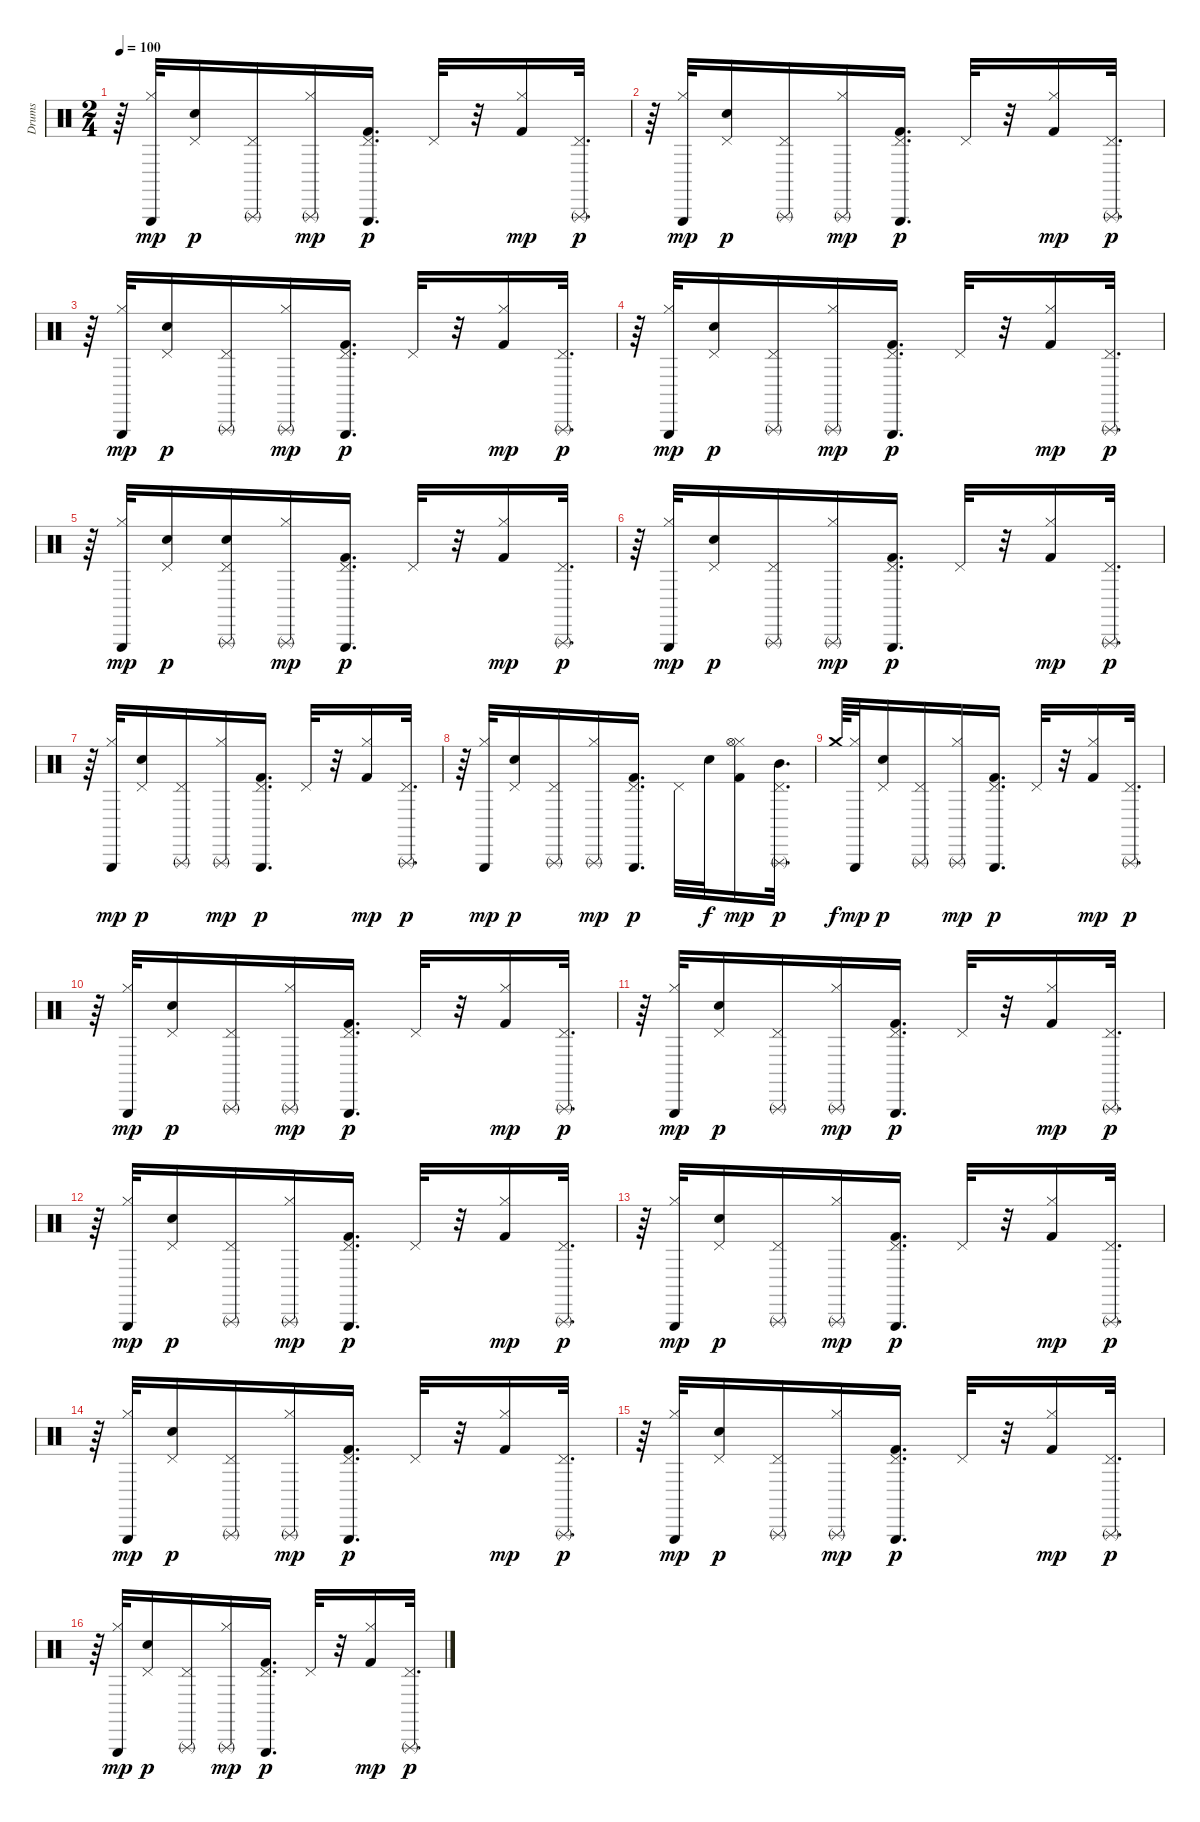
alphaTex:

\track ("Drums" "Drums") {instrument percussion}
\staff {score}
\articulation defaults
\ts (2 4)
\tempo 100
\clef neutral
\ks c
r.64{dy p} ("Triangle (hit)" "Hi-Hat (closed)").32{dy mp} ("Pedal Hi-Hat (hit)" "Electric Snare (hit)").16{dy p} ("Triangle (rnute)" "Pedal Hi-Hat (hit)").16 ("Triangle (rnute)" "Hi-Hat (closed)").16{dy mp} ("Triangle (hit)" "Kick (hit) 2" "Pedal Hi-Hat (hit)").16{d dy p} "Pedal Hi-Hat (hit)".32 r.32 ("Kick (hit) 2" "Hi-Hat (closed)").16{dy mp} ("Triangle (rnute)" "Pedal Hi-Hat (hit)").32{d dy p} |
r.64 ("Triangle (hit)" "Hi-Hat (closed)").32{dy mp} ("Pedal Hi-Hat (hit)" "Electric Snare (hit)").16{dy p} ("Triangle (rnute)" "Pedal Hi-Hat (hit)").16 ("Triangle (rnute)" "Hi-Hat (closed)").16{dy mp} ("Triangle (hit)" "Kick (hit) 2" "Pedal Hi-Hat (hit)").16{d dy p} "Pedal Hi-Hat (hit)".32 r.32 ("Kick (hit) 2" "Hi-Hat (closed)").16{dy mp} ("Triangle (rnute)" "Pedal Hi-Hat (hit)").32{d dy p} |
r.64 ("Triangle (hit)" "Hi-Hat (closed)").32{dy mp} ("Pedal Hi-Hat (hit)" "Electric Snare (hit)").16{dy p} ("Triangle (rnute)" "Pedal Hi-Hat (hit)").16 ("Triangle (rnute)" "Hi-Hat (closed)").16{dy mp} ("Triangle (hit)" "Kick (hit) 2" "Pedal Hi-Hat (hit)").16{d dy p} "Pedal Hi-Hat (hit)".32 r.32 ("Kick (hit) 2" "Hi-Hat (closed)").16{dy mp} ("Triangle (rnute)" "Pedal Hi-Hat (hit)").32{d dy p} |
r.64 ("Triangle (hit)" "Hi-Hat (closed)").32{dy mp} ("Pedal Hi-Hat (hit)" "Electric Snare (hit)").16{dy p} ("Triangle (rnute)" "Pedal Hi-Hat (hit)").16 ("Triangle (rnute)" "Hi-Hat (closed)").16{dy mp} ("Triangle (hit)" "Kick (hit) 2" "Pedal Hi-Hat (hit)").16{d dy p} "Pedal Hi-Hat (hit)".32 r.32 ("Kick (hit) 2" "Hi-Hat (closed)").16{dy mp} ("Triangle (rnute)" "Pedal Hi-Hat (hit)").32{d dy p} |
r.64 ("Triangle (hit)" "Hi-Hat (closed)").32{dy mp} ("Pedal Hi-Hat (hit)" "Electric Snare (hit)").16{dy p} ("Triangle (rnute)" "Pedal Hi-Hat (hit)" "Electric Snare (hit)").16 ("Triangle (rnute)" "Hi-Hat (closed)").16{dy mp} ("Triangle (hit)" "Kick (hit) 2" "Pedal Hi-Hat (hit)").16{d dy p} "Pedal Hi-Hat (hit)".32 r.32 ("Kick (hit) 2" "Hi-Hat (closed)").16{dy mp} ("Triangle (rnute)" "Pedal Hi-Hat (hit)").32{d dy p} |
r.64 ("Triangle (hit)" "Hi-Hat (closed)").32{dy mp} ("Pedal Hi-Hat (hit)" "Electric Snare (hit)").16{dy p} ("Triangle (rnute)" "Pedal Hi-Hat (hit)").16 ("Triangle (rnute)" "Hi-Hat (closed)").16{dy mp} ("Triangle (hit)" "Kick (hit) 2" "Pedal Hi-Hat (hit)").16{d dy p} "Pedal Hi-Hat (hit)".32 r.32 ("Kick (hit) 2" "Hi-Hat (closed)").16{dy mp} ("Triangle (rnute)" "Pedal Hi-Hat (hit)").32{d dy p} |
r.64 ("Triangle (hit)" "Hi-Hat (closed)").32{dy mp} ("Pedal Hi-Hat (hit)" "Electric Snare (hit)").16{dy p} ("Triangle (rnute)" "Pedal Hi-Hat (hit)").16 ("Triangle (rnute)" "Hi-Hat (closed)").16{dy mp} ("Triangle (hit)" "Kick (hit) 2" "Pedal Hi-Hat (hit)").16{d dy p} "Pedal Hi-Hat (hit)".32 r.32 ("Kick (hit) 2" "Hi-Hat (closed)").16{dy mp} ("Triangle (rnute)" "Pedal Hi-Hat (hit)").32{d dy p} |
r.64 ("Triangle (hit)" "Hi-Hat (closed)").32{dy mp} ("Pedal Hi-Hat (hit)" "Electric Snare (hit)").16{dy p} ("Triangle (rnute)" "Pedal Hi-Hat (hit)").16 ("Triangle (rnute)" "Hi-Hat (closed)").16{dy mp} ("Triangle (hit)" "Kick (hit) 2" "Pedal Hi-Hat (hit)").16{d dy p} "Pedal Hi-Hat (hit)".32 "Electric Snare (hit)".32{dy f} ("Kick (hit) 2" "Hi-Hat (closed)" "Hi-Hat (open)").16{dy mp} ("Triangle (rnute)" "Pedal Hi-Hat (hit)" "Mid Tom (hit)").32{d dy p} |
"Crash medium (hit)".64{dy f} ("Triangle (hit)" "Hi-Hat (closed)").32{dy mp} ("Pedal Hi-Hat (hit)" "Electric Snare (hit)").16{dy p} ("Triangle (rnute)" "Pedal Hi-Hat (hit)").16 ("Triangle (rnute)" "Hi-Hat (closed)").16{dy mp} ("Triangle (hit)" "Kick (hit) 2" "Pedal Hi-Hat (hit)").16{d dy p} "Pedal Hi-Hat (hit)".32 r.32 ("Kick (hit) 2" "Hi-Hat (closed)").16{dy mp} ("Triangle (rnute)" "Pedal Hi-Hat (hit)").32{d dy p} |
r.64 ("Triangle (hit)" "Hi-Hat (closed)").32{dy mp} ("Pedal Hi-Hat (hit)" "Electric Snare (hit)").16{dy p} ("Triangle (rnute)" "Pedal Hi-Hat (hit)").16 ("Triangle (rnute)" "Hi-Hat (closed)").16{dy mp} ("Triangle (hit)" "Kick (hit) 2" "Pedal Hi-Hat (hit)").16{d dy p} "Pedal Hi-Hat (hit)".32 r.32 ("Kick (hit) 2" "Hi-Hat (closed)").16{dy mp} ("Triangle (rnute)" "Pedal Hi-Hat (hit)").32{d dy p} |
r.64 ("Triangle (hit)" "Hi-Hat (closed)").32{dy mp} ("Pedal Hi-Hat (hit)" "Electric Snare (hit)").16{dy p} ("Triangle (rnute)" "Pedal Hi-Hat (hit)").16 ("Triangle (rnute)" "Hi-Hat (closed)").16{dy mp} ("Triangle (hit)" "Kick (hit) 2" "Pedal Hi-Hat (hit)").16{d dy p} "Pedal Hi-Hat (hit)".32 r.32 ("Kick (hit) 2" "Hi-Hat (closed)").16{dy mp} ("Triangle (rnute)" "Pedal Hi-Hat (hit)").32{d dy p} |
r.64 ("Triangle (hit)" "Hi-Hat (closed)").32{dy mp} ("Pedal Hi-Hat (hit)" "Electric Snare (hit)").16{dy p} ("Triangle (rnute)" "Pedal Hi-Hat (hit)").16 ("Triangle (rnute)" "Hi-Hat (closed)").16{dy mp} ("Triangle (hit)" "Kick (hit) 2" "Pedal Hi-Hat (hit)").16{d dy p} "Pedal Hi-Hat (hit)".32 r.32 ("Kick (hit) 2" "Hi-Hat (closed)").16{dy mp} ("Triangle (rnute)" "Pedal Hi-Hat (hit)").32{d dy p} |
r.64 ("Triangle (hit)" "Hi-Hat (closed)").32{dy mp} ("Pedal Hi-Hat (hit)" "Electric Snare (hit)").16{dy p} ("Triangle (rnute)" "Pedal Hi-Hat (hit)").16 ("Triangle (rnute)" "Hi-Hat (closed)").16{dy mp} ("Triangle (hit)" "Kick (hit) 2" "Pedal Hi-Hat (hit)").16{d dy p} "Pedal Hi-Hat (hit)".32 r.32 ("Kick (hit) 2" "Hi-Hat (closed)").16{dy mp} ("Triangle (rnute)" "Pedal Hi-Hat (hit)").32{d dy p} |
r.64 ("Triangle (hit)" "Hi-Hat (closed)").32{dy mp} ("Pedal Hi-Hat (hit)" "Electric Snare (hit)").16{dy p} ("Triangle (rnute)" "Pedal Hi-Hat (hit)").16 ("Triangle (rnute)" "Hi-Hat (closed)").16{dy mp} ("Triangle (hit)" "Kick (hit) 2" "Pedal Hi-Hat (hit)").16{d dy p} "Pedal Hi-Hat (hit)".32 r.32 ("Kick (hit) 2" "Hi-Hat (closed)").16{dy mp} ("Triangle (rnute)" "Pedal Hi-Hat (hit)").32{d dy p} |
r.64 ("Triangle (hit)" "Hi-Hat (closed)").32{dy mp} ("Pedal Hi-Hat (hit)" "Electric Snare (hit)").16{dy p} ("Triangle (rnute)" "Pedal Hi-Hat (hit)").16 ("Triangle (rnute)" "Hi-Hat (closed)").16{dy mp} ("Triangle (hit)" "Kick (hit) 2" "Pedal Hi-Hat (hit)").16{d dy p} "Pedal Hi-Hat (hit)".32 r.32 ("Kick (hit) 2" "Hi-Hat (closed)").16{dy mp} ("Triangle (rnute)" "Pedal Hi-Hat (hit)").32{d dy p} |
r.64 ("Triangle (hit)" "Hi-Hat (closed)").32{dy mp} ("Pedal Hi-Hat (hit)" "Electric Snare (hit)").16{dy p} ("Triangle (rnute)" "Pedal Hi-Hat (hit)").16 ("Triangle (rnute)" "Hi-Hat (closed)").16{dy mp} ("Triangle (hit)" "Kick (hit) 2" "Pedal Hi-Hat (hit)").16{d dy p} "Pedal Hi-Hat (hit)".32 r.32 ("Kick (hit) 2" "Hi-Hat (closed)").16{dy mp} ("Triangle (rnute)" "Pedal Hi-Hat (hit)").32{d dy p}
